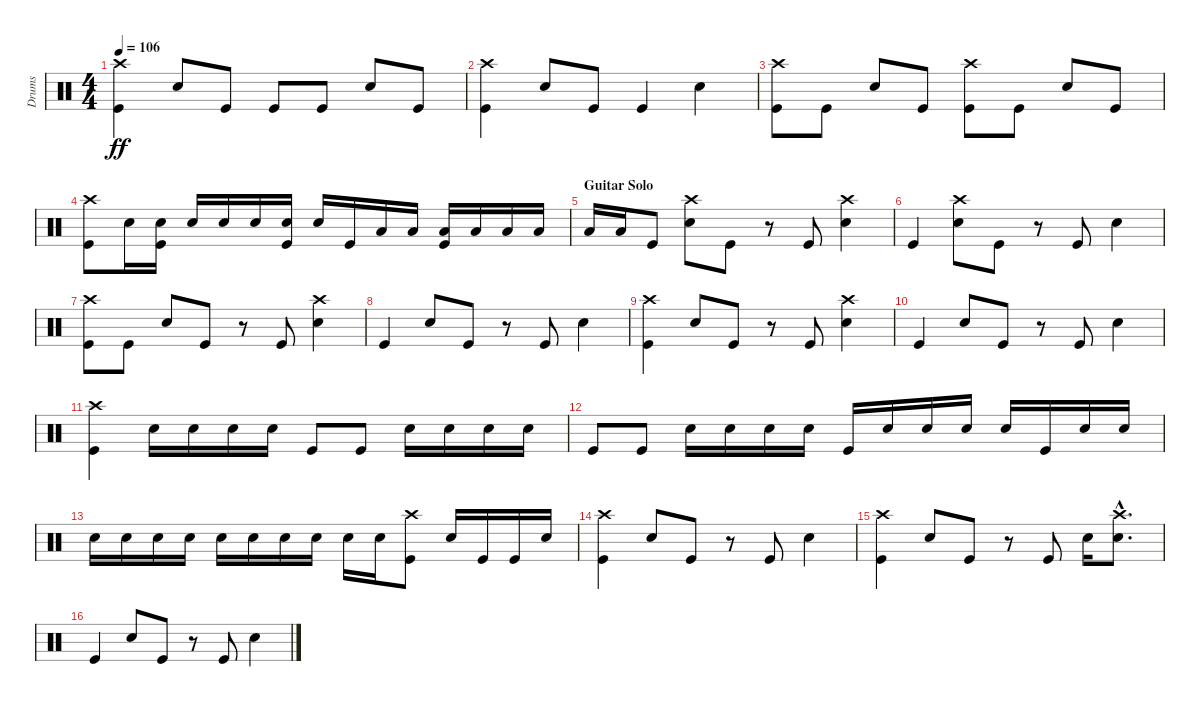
\track ("Drums" "Drums") {instrument percussion}
\staff {score}
\articulation defaults
\ts (4 4)
\tempo 106
\clef neutral
\ks c
("Crash high (hit)" "Kick (hit)").4{dy ff} "Snare (hit) 2".8 "Kick (hit)".8 "Kick (hit)".8 "Kick (hit)".8 "Snare (hit) 2".8 "Kick (hit)".8 |
("Crash high (hit)" "Kick (hit)").4 "Snare (hit) 2".8 "Kick (hit)".8 "Kick (hit)".4 "Snare (hit) 2".4 |
("Crash high (hit)" "Kick (hit)").8 "Kick (hit)".8 "Snare (hit) 2".8 "Kick (hit)".8 ("Crash high (hit)" "Kick (hit)").8 "Kick (hit)".8 "Snare (hit) 2".8 "Kick (hit)".8 |
("Crash high (hit)" "Kick (hit)").8 "Snare (hit) 2".16 ("Snare (hit) 2" "Kick (hit)").16 "Snare (hit) 2".16 "Snare (hit) 2".16 "Snare (hit) 2".16 ("Snare (hit) 2" "Kick (hit)").16 "Snare (hit) 2".16 "Kick (hit)".16 "Low Tom (hit)".16 "Low Tom (hit)".16 ("Low Tom (hit)" "Kick (hit)").16 "Low Tom (hit)".16 "Low Tom (hit)".16 "Low Tom (hit)".16 |
\section ("" "Guitar Solo")
"Low Tom (hit)".16 "Low Tom (hit)".16 "Kick (hit)".8 ("Crash high (hit)" "Snare (hit) 2").8 "Kick (hit)".8 r.8 "Kick (hit)".8 ("Crash high (hit)" "Snare (hit) 2").4 |
"Kick (hit)".4 ("Crash high (hit)" "Snare (hit) 2").8 "Kick (hit)".8 r.8 "Kick (hit)".8 "Snare (hit) 2".4 |
("Crash high (hit)" "Kick (hit)").8 "Kick (hit)".8 "Snare (hit) 2".8 "Kick (hit)".8 r.8 "Kick (hit)".8 ("Crash high (hit)" "Snare (hit) 2").4 |
"Kick (hit)".4 "Snare (hit) 2".8 "Kick (hit)".8 r.8 "Kick (hit)".8 "Snare (hit) 2".4 |
("Crash high (hit)" "Kick (hit)").4 "Snare (hit) 2".8 "Kick (hit)".8 r.8 "Kick (hit)".8 ("Crash high (hit)" "Snare (hit) 2").4 |
"Kick (hit)".4 "Snare (hit) 2".8 "Kick (hit)".8 r.8 "Kick (hit)".8 "Snare (hit) 2".4 |
("Crash high (hit)" "Kick (hit)").4 "Snare (hit) 2".16 "Snare (hit) 2".16 "Snare (hit) 2".16 "Snare (hit) 2".16 "Kick (hit)".8 "Kick (hit)".8 "Snare (hit) 2".16 "Snare (hit) 2".16 "Snare (hit) 2".16 "Snare (hit) 2".16 |
"Kick (hit)".8 "Kick (hit)".8 "Snare (hit) 2".16 "Snare (hit) 2".16 "Snare (hit) 2".16 "Snare (hit) 2".16 "Kick (hit)".16 "Snare (hit) 2".16 "Snare (hit) 2".16 "Snare (hit) 2".16 "Snare (hit) 2".16 "Kick (hit)".16 "Snare (hit) 2".16 "Snare (hit) 2".16 |
"Snare (hit) 2".16 "Snare (hit) 2".16 "Snare (hit) 2".16 "Snare (hit) 2".16 "Snare (hit) 2".16 "Snare (hit) 2".16 "Snare (hit) 2".16 "Snare (hit) 2".16 "Snare (hit) 2".16 "Snare (hit) 2".16 ("Crash high (hit)" "Kick (hit)").8 "Snare (hit) 2".16 "Kick (hit)".16 "Kick (hit)".16 "Snare (hit) 2".16 |
("Crash high (hit)" "Kick (hit)").4 "Snare (hit) 2".8 "Kick (hit)".8 r.8 "Kick (hit)".8 "Snare (hit) 2".4 |
("Crash high (hit)" "Kick (hit)").4 "Snare (hit) 2".8 "Kick (hit)".8 r.8 "Kick (hit)".8 "Snare (hit) 2".16 ("Crash high (hit)"{hac} "Snare (hit) 2"{hac}).8{d} |
"Kick (hit)".4 "Snare (hit) 2".8 "Kick (hit)".8 r.8 "Kick (hit)".8 "Snare (hit) 2".4
